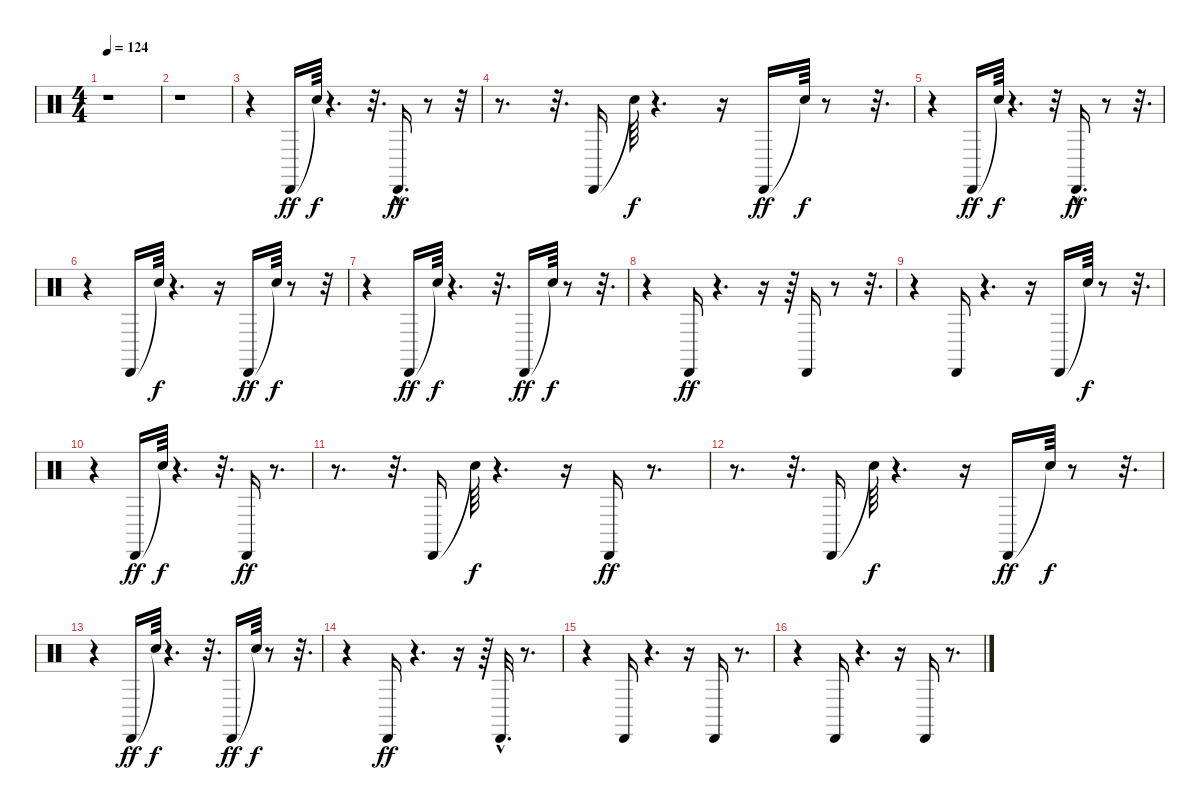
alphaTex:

\track "" {instrument percussion}
\staff {score}
\articulation defaults
\ts (4 4)
\tempo 124
\clef neutral
\ks c
r.1{dy f} |
r.1 |
r.4 "Cabasa (hit)".16{dy ff} "Snare (hit)"{t}.64{dy f} r.4{d} r.32{d} "Cabasa (hit)"{hac}.16{d dy ff} r.8 r.32 |
r.8{d} r.32{d} "Cabasa (hit)".16 "Snare (hit)"{t}.64{dy f} r.4{d} r.16 "Cabasa (hit)".16{dy ff} "Snare (hit)"{t}.64{dy f} r.8 r.32{d} |
r.4 "Cabasa (hit)".16{dy ff} "Snare (hit)"{t}.64{dy f} r.4{d} r.32 "Cabasa (hit)"{hac}.16{d dy ff} r.8 r.32{d} |
r.4 "Cabasa (hit)".16 "Snare (hit)"{t}.64{dy f} r.4{d} r.16 "Cabasa (hit)".16{dy ff} "Snare (hit)"{t}.64{dy f} r.8 r.32 |
r.4 "Cabasa (hit)".16{dy ff} "Snare (hit)"{t}.64{dy f} r.4{d} r.32{d} "Cabasa (hit)".16{dy ff} "Snare (hit)"{t}.64{dy f} r.8 r.32{d} |
r.4 "Cabasa (hit)".16{dy ff} r.4{d} r.16 r.64 "Cabasa (hit)".16 r.8 r.32{d} |
r.4 "Cabasa (hit)".16 r.4{d} r.16 "Cabasa (hit)".16 "Snare (hit)"{t}.64{dy f} r.8 r.32{d} |
r.4 "Cabasa (hit)".16{dy ff} "Snare (hit)"{t}.64{dy f} r.4{d} r.32{d} "Cabasa (hit)".16{dy ff} r.8{d} |
r.8{d} r.32{d} "Cabasa (hit)".16 "Snare (hit)"{t}.64{dy f} r.4{d} r.16 "Cabasa (hit)".16{dy ff} r.8{d} |
r.8{d} r.32{d} "Cabasa (hit)".16 "Snare (hit)"{t}.64{dy f} r.4{d} r.16 "Cabasa (hit)".16{dy ff} "Snare (hit)"{t}.64{dy f} r.8 r.32{d} |
r.4 "Cabasa (hit)".16{dy ff} "Snare (hit)"{t}.64{dy f} r.4{d} r.32{d} "Cabasa (hit)".16{dy ff} "Snare (hit)"{t}.64{dy f} r.8 r.32{d} |
r.4 "Cabasa (hit)".16{dy ff} r.4{d} r.16 r.64 "Cabasa (hit)"{hac}.32{d} r.8{d} |
r.4 "Cabasa (hit)".16 r.4{d} r.16 "Cabasa (hit)".16 r.8{d} |
r.4 "Cabasa (hit)".16 r.4{d} r.16 "Cabasa (hit)".16 r.8{d}
